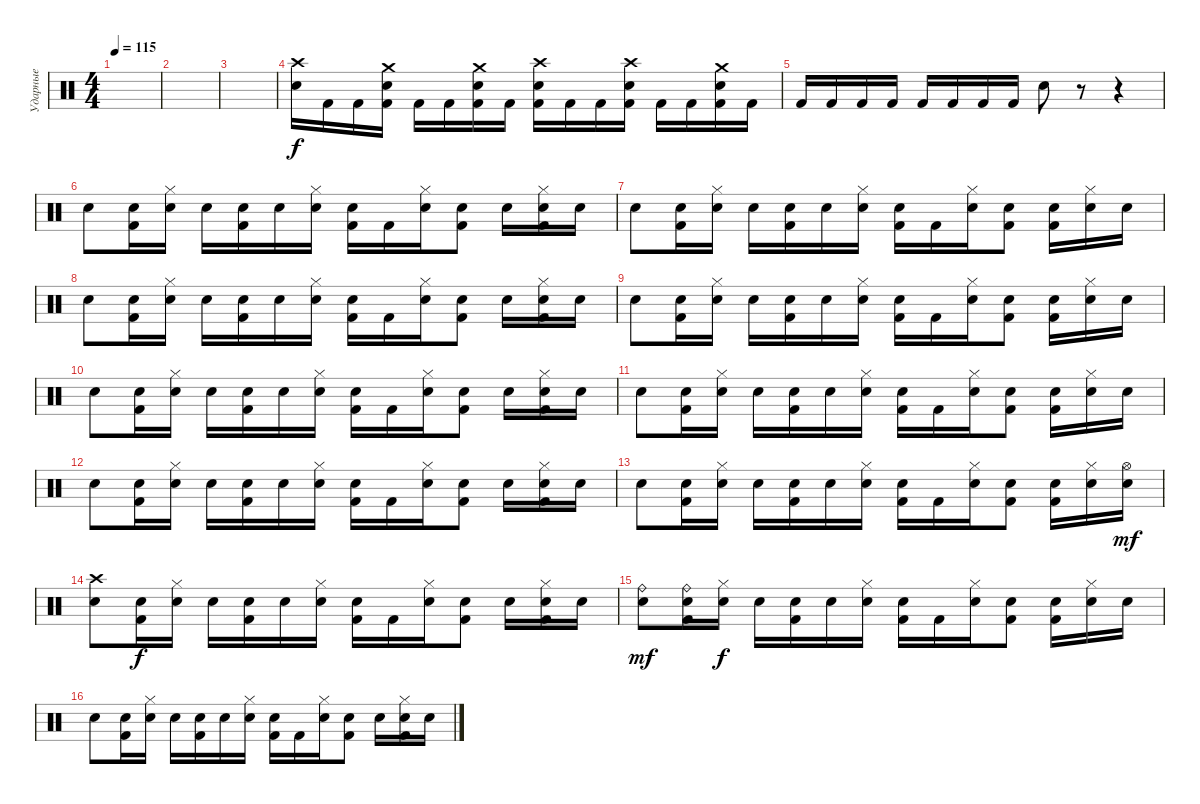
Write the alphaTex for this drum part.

\track ("Ударные" "Ударные") {instrument percussion}
\staff {score}
\articulation defaults
\ts (4 4)
\tempo 115
\clef neutral
\ks c
|
|
|
("Crash high (hit)" "Snare (hit) 2").16 "Kick (hit) 2".16 "Kick (hit) 2".16 ("Crash medium (hit)" "Snare (hit) 2" "Kick (hit) 2").16 "Kick (hit) 2".16 "Kick (hit) 2".16 ("Crash medium (hit)" "Snare (hit) 2" "Kick (hit) 2").16 "Kick (hit) 2".16 ("Crash high (hit)" "Snare (hit) 2" "Kick (hit) 2").16 "Kick (hit) 2".16 "Kick (hit) 2".16 ("Crash high (hit)" "Snare (hit) 2" "Kick (hit) 2").16 "Kick (hit) 2".16 "Kick (hit) 2".16 ("Crash medium (hit)" "Snare (hit) 2" "Kick (hit) 2").16 "Kick (hit) 2".16 |
"Kick (hit) 2".16 "Kick (hit) 2".16 "Kick (hit) 2".16 "Kick (hit) 2".16 "Kick (hit) 2".16 "Kick (hit) 2".16 "Kick (hit) 2".16 "Kick (hit) 2".16 "Snare (hit) 2".8 r.8 r.4 |
"Electric Snare (hit)".8 ("Snare (hit) 2" "Kick (hit) 2").16 ("Hi-Hat (closed)" "Electric Snare (hit)").16 "Electric Snare (hit)".16 ("Snare (hit) 2" "Kick (hit) 2").16 "Electric Snare (hit)".16 ("Hi-Hat (closed)" "Electric Snare (hit)").16 ("Snare (hit) 2" "Kick (hit) 2").16 "Kick (hit) 2".16 ("Hi-Hat (closed)" "Electric Snare (hit)").16 ("Snare (hit) 2" "Kick (hit) 2").8 "Snare (hit) 2".16 ("Hi-Hat (closed)" "Snare (hit) 2" "Kick (hit) 2").16 "Electric Snare (hit)".16 |
"Electric Snare (hit)".8 ("Snare (hit) 2" "Kick (hit) 2").16 ("Hi-Hat (closed)" "Electric Snare (hit)").16 "Electric Snare (hit)".16 ("Snare (hit) 2" "Kick (hit) 2").16 "Electric Snare (hit)".16 ("Hi-Hat (closed)" "Electric Snare (hit)").16 ("Snare (hit) 2" "Kick (hit) 2").16 "Kick (hit) 2".16 ("Hi-Hat (closed)" "Electric Snare (hit)").16 ("Snare (hit) 2" "Kick (hit) 2").8 ("Electric Snare (hit)" "Kick (hit) 2").16 ("Hi-Hat (closed)" "Snare (hit) 2").16 "Electric Snare (hit)".16 |
"Electric Snare (hit)".8 ("Snare (hit) 2" "Kick (hit) 2").16 ("Hi-Hat (closed)" "Electric Snare (hit)").16 "Electric Snare (hit)".16 ("Snare (hit) 2" "Kick (hit) 2").16 "Electric Snare (hit)".16 ("Hi-Hat (closed)" "Electric Snare (hit)").16 ("Snare (hit) 2" "Kick (hit) 2").16 "Kick (hit) 2".16 ("Hi-Hat (closed)" "Electric Snare (hit)").16 ("Snare (hit) 2" "Kick (hit) 2").8 "Snare (hit) 2".16 ("Hi-Hat (closed)" "Snare (hit) 2" "Kick (hit) 2").16 "Electric Snare (hit)".16 |
"Electric Snare (hit)".8 ("Snare (hit) 2" "Kick (hit) 2").16 ("Hi-Hat (closed)" "Electric Snare (hit)").16 "Electric Snare (hit)".16 ("Snare (hit) 2" "Kick (hit) 2").16 "Electric Snare (hit)".16 ("Hi-Hat (closed)" "Electric Snare (hit)").16 ("Snare (hit) 2" "Kick (hit) 2").16 "Kick (hit) 2".16 ("Hi-Hat (closed)" "Electric Snare (hit)").16 ("Snare (hit) 2" "Kick (hit) 2").8 ("Electric Snare (hit)" "Kick (hit) 2").16 ("Hi-Hat (closed)" "Snare (hit) 2").16 "Electric Snare (hit)".16 |
"Electric Snare (hit)".8 ("Snare (hit) 2" "Kick (hit) 2").16 ("Hi-Hat (closed)" "Electric Snare (hit)").16 "Electric Snare (hit)".16 ("Snare (hit) 2" "Kick (hit) 2").16 "Electric Snare (hit)".16 ("Hi-Hat (closed)" "Electric Snare (hit)").16 ("Snare (hit) 2" "Kick (hit) 2").16 "Kick (hit) 2".16 ("Hi-Hat (closed)" "Electric Snare (hit)").16 ("Snare (hit) 2" "Kick (hit) 2").8 "Snare (hit) 2".16 ("Hi-Hat (closed)" "Snare (hit) 2" "Kick (hit) 2").16 "Electric Snare (hit)".16 |
"Electric Snare (hit)".8 ("Snare (hit) 2" "Kick (hit) 2").16 ("Hi-Hat (closed)" "Electric Snare (hit)").16 "Electric Snare (hit)".16 ("Snare (hit) 2" "Kick (hit) 2").16 "Electric Snare (hit)".16 ("Hi-Hat (closed)" "Electric Snare (hit)").16 ("Snare (hit) 2" "Kick (hit) 2").16 "Kick (hit) 2".16 ("Hi-Hat (closed)" "Electric Snare (hit)").16 ("Snare (hit) 2" "Kick (hit) 2").8 ("Electric Snare (hit)" "Kick (hit) 2").16 ("Hi-Hat (closed)" "Snare (hit) 2").16 "Electric Snare (hit)".16 |
"Electric Snare (hit)".8 ("Snare (hit) 2" "Kick (hit) 2").16 ("Hi-Hat (closed)" "Electric Snare (hit)").16 "Electric Snare (hit)".16 ("Snare (hit) 2" "Kick (hit) 2").16 "Electric Snare (hit)".16 ("Hi-Hat (closed)" "Electric Snare (hit)").16 ("Snare (hit) 2" "Kick (hit) 2").16 "Kick (hit) 2".16 ("Hi-Hat (closed)" "Electric Snare (hit)").16 ("Snare (hit) 2" "Kick (hit) 2").8 "Snare (hit) 2".16 ("Hi-Hat (closed)" "Snare (hit) 2" "Kick (hit) 2").16 "Electric Snare (hit)".16 |
"Electric Snare (hit)".8 ("Snare (hit) 2" "Kick (hit) 2").16 ("Hi-Hat (closed)" "Electric Snare (hit)").16 "Electric Snare (hit)".16 ("Snare (hit) 2" "Kick (hit) 2").16 "Electric Snare (hit)".16 ("Hi-Hat (closed)" "Electric Snare (hit)").16 ("Snare (hit) 2" "Kick (hit) 2").16 "Kick (hit) 2".16 ("Hi-Hat (closed)" "Electric Snare (hit)").16 ("Snare (hit) 2" "Kick (hit) 2").8 ("Electric Snare (hit)" "Kick (hit) 2").16 ("Hi-Hat (closed)" "Snare (hit) 2").16 ("Hi-Hat (open)" "Electric Snare (hit)").16{dy mf} |
("Crash high (hit)" "Electric Snare (hit)").8 ("Snare (hit) 2" "Kick (hit) 2").16{dy f} ("Hi-Hat (closed)" "Electric Snare (hit)").16 "Electric Snare (hit)".16 ("Snare (hit) 2" "Kick (hit) 2").16 "Electric Snare (hit)".16 ("Hi-Hat (closed)" "Electric Snare (hit)").16 ("Snare (hit) 2" "Kick (hit) 2").16 "Kick (hit) 2".16 ("Hi-Hat (closed)" "Electric Snare (hit)").16 ("Snare (hit) 2" "Kick (hit) 2").8 "Snare (hit) 2".16 ("Hi-Hat (closed)" "Snare (hit) 2" "Kick (hit) 2").16 "Electric Snare (hit)".16 |
("Ride (bell)" "Electric Snare (hit)").8{dy mf} ("Ride (bell)" "Snare (hit) 2" "Kick (hit) 2").16 ("Hi-Hat (closed)" "Electric Snare (hit)").16{dy f} "Electric Snare (hit)".16 ("Snare (hit) 2" "Kick (hit) 2").16 "Electric Snare (hit)".16 ("Hi-Hat (closed)" "Electric Snare (hit)").16 ("Snare (hit) 2" "Kick (hit) 2").16 "Kick (hit) 2".16 ("Hi-Hat (closed)" "Electric Snare (hit)").16 ("Snare (hit) 2" "Kick (hit) 2").8 ("Electric Snare (hit)" "Kick (hit) 2").16 ("Hi-Hat (closed)" "Snare (hit) 2").16 "Electric Snare (hit)".16 |
"Electric Snare (hit)".8 ("Snare (hit) 2" "Kick (hit) 2").16 ("Hi-Hat (closed)" "Electric Snare (hit)").16 "Electric Snare (hit)".16 ("Snare (hit) 2" "Kick (hit) 2").16 "Electric Snare (hit)".16 ("Hi-Hat (closed)" "Electric Snare (hit)").16 ("Snare (hit) 2" "Kick (hit) 2").16 "Kick (hit) 2".16 ("Hi-Hat (closed)" "Electric Snare (hit)").16 ("Snare (hit) 2" "Kick (hit) 2").8 "Snare (hit) 2".16 ("Hi-Hat (closed)" "Snare (hit) 2" "Kick (hit) 2").16 "Electric Snare (hit)".16
